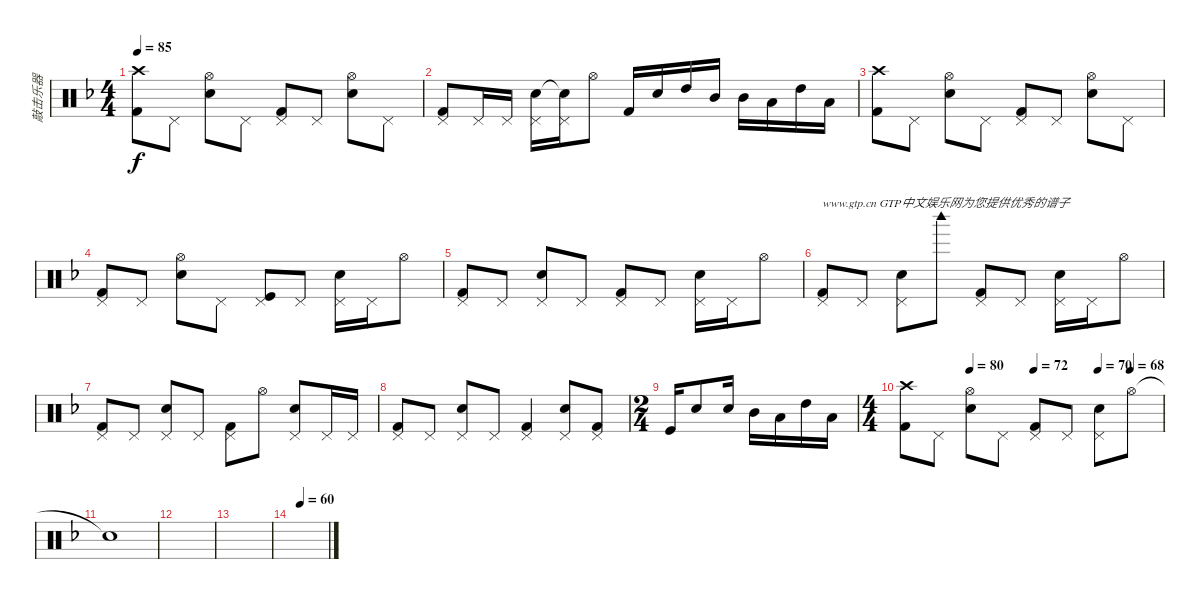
\track ("敲击乐器" "敲击乐器") {instrument percussion}
\staff {score}
\articulation defaults
\ts (4 4)
\tempo 85
\clef neutral
\ks f
("Crash high (hit)" "Kick (hit) 2").8{dy f} "Pedal Hi-Hat (hit)".8 ("Hi-Hat (open)" "Snare (hit) 2").8 "Pedal Hi-Hat (hit)".8 ("Pedal Hi-Hat (hit)" "Kick (hit) 2").8 "Pedal Hi-Hat (hit)".8 ("Hi-Hat (open)" "Snare (hit) 2").8 "Pedal Hi-Hat (hit)".8 |
("Pedal Hi-Hat (hit)" "Kick (hit) 2").8 "Pedal Hi-Hat (hit)".16 "Pedal Hi-Hat (hit)".16 ("Pedal Hi-Hat (hit)" "Snare (hit) 2").16 ("Pedal Hi-Hat (hit)" "Snare (hit) 2"{t}).16 "Hi-Hat (open)".8 "Kick (hit) 2".16 "Snare (hit) 2".16 "High Tom (hit)".16 "Mid Tom (hit)".16 "Mid Tom (hit)".16 "Low Tom (hit)".16 "High Tom (hit)".16 "Low Tom (hit)".16 |
("Crash high (hit)" "Kick (hit) 2").8 "Pedal Hi-Hat (hit)".8 ("Hi-Hat (open)" "Snare (hit) 2").8 "Pedal Hi-Hat (hit)".8 ("Pedal Hi-Hat (hit)" "Kick (hit) 2").8 "Pedal Hi-Hat (hit)".8 ("Hi-Hat (open)" "Snare (hit) 2").8 "Pedal Hi-Hat (hit)".8 |
("Pedal Hi-Hat (hit)" "Kick (hit) 2").8 "Pedal Hi-Hat (hit)".8 ("Hi-Hat (open)" "Snare (hit) 2").8 "Pedal Hi-Hat (hit)".8 ("Pedal Hi-Hat (hit)" "Kick (hit)").8 "Pedal Hi-Hat (hit)".8 ("Pedal Hi-Hat (hit)" "Snare (hit) 2").16 "Pedal Hi-Hat (hit)".16 "Hi-Hat (open)".8 |
("Pedal Hi-Hat (hit)" "Kick (hit) 2").8 "Pedal Hi-Hat (hit)".8 ("Pedal Hi-Hat (hit)" "Snare (hit) 2").8 "Pedal Hi-Hat (hit)".8 ("Pedal Hi-Hat (hit)" "Kick (hit) 2").8 "Pedal Hi-Hat (hit)".8 ("Pedal Hi-Hat (hit)" "Snare (hit) 2").16 "Pedal Hi-Hat (hit)".16 "Hi-Hat (open)".8 |
("Pedal Hi-Hat (hit)" "Kick (hit) 2").8{txt "www.gtp.cn GTP中文娱乐网为您提供优秀的谱子"} "Pedal Hi-Hat (hit)".8 ("Pedal Hi-Hat (hit)" "Snare (hit) 2").8 "Woodblock high (hit)".8 ("Pedal Hi-Hat (hit)" "Kick (hit) 2").8 "Pedal Hi-Hat (hit)".8 ("Pedal Hi-Hat (hit)" "Snare (hit) 2").16 "Pedal Hi-Hat (hit)".16 "Hi-Hat (open)".8 |
("Pedal Hi-Hat (hit)" "Kick (hit) 2").8 "Pedal Hi-Hat (hit)".8 ("Pedal Hi-Hat (hit)" "Snare (hit) 2").8 "Pedal Hi-Hat (hit)".8 ("Pedal Hi-Hat (hit)" "Kick (hit) 2").8 "Hi-Hat (open)".8 ("Pedal Hi-Hat (hit)" "Snare (hit) 2").8 "Pedal Hi-Hat (hit)".16 "Pedal Hi-Hat (hit)".16 |
("Pedal Hi-Hat (hit)" "Kick (hit) 2").8 "Pedal Hi-Hat (hit)".8 ("Pedal Hi-Hat (hit)" "Snare (hit) 2").8 "Pedal Hi-Hat (hit)".8 ("Pedal Hi-Hat (hit)" "Kick (hit) 2").4 ("Pedal Hi-Hat (hit)" "Snare (hit) 2").8 ("Pedal Hi-Hat (hit)" "Kick (hit) 2").8 |
\ts (2 4)
"Kick (hit)".16 "Snare (hit) 2".8 "Snare (hit) 2".16 "Mid Tom (hit)".16 "Low Tom (hit)".16 "High Tom (hit)".16 "Low Tom (hit)".16 |
\ts (4 4)
\tempo (80 0.25)
\tempo (72 0.5)
\tempo (70 0.75)
\tempo (68 0.875)
("Crash high (hit)" "Kick (hit) 2").8 "Pedal Hi-Hat (hit)".8 ("Hi-Hat (open)" "Snare (hit) 2").8 "Pedal Hi-Hat (hit)".8 ("Pedal Hi-Hat (hit)" "Kick (hit) 2").8 "Pedal Hi-Hat (hit)".8 ("Pedal Hi-Hat (hit)" "Snare (hit) 2").8 "Hi-Hat (open)".8 |
"Snare (hit)"{t}.1 |
|
|
\tempo (60 0.25)
